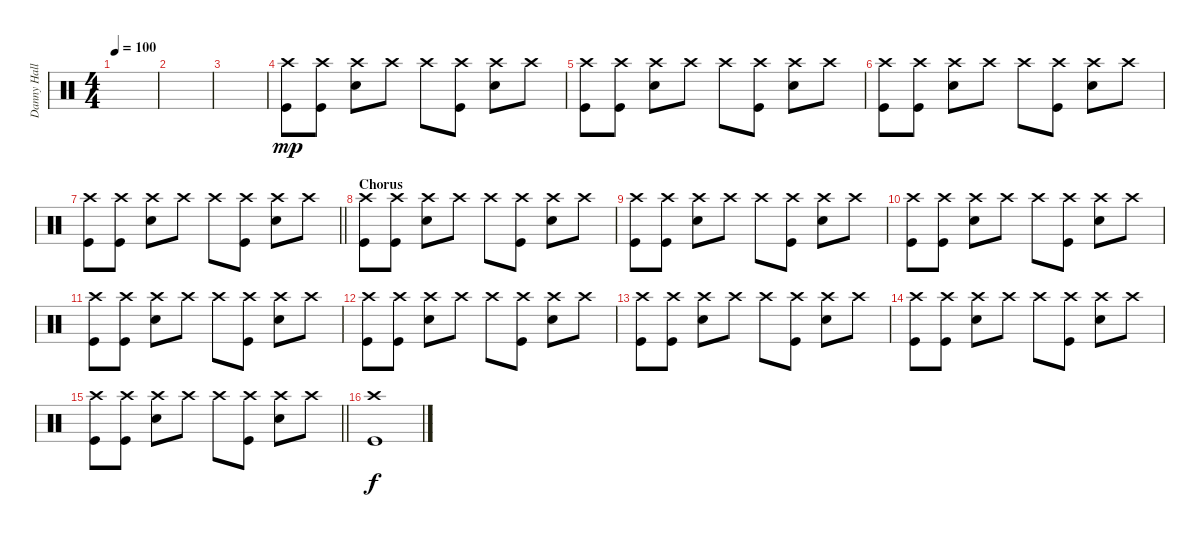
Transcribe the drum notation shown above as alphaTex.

\track ("Danny Hall" "Danny Hall") {instrument percussion}
\staff {score}
\articulation defaults
\ts (4 4)
\tempo 100
\clef neutral
\ks c
|
|
|
("Crash high (hit)" "Kick (hit)").8{dy mp} ("Crash high (hit)" "Kick (hit)").8 ("Crash high (hit)" "Snare (hit) 2").8 "Crash high (hit)".8 "Crash high (hit)".8 ("Crash high (hit)" "Kick (hit)").8 ("Crash high (hit)" "Snare (hit) 2").8 "Crash high (hit)".8 |
("Crash high (hit)" "Kick (hit)").8 ("Crash high (hit)" "Kick (hit)").8 ("Crash high (hit)" "Snare (hit) 2").8 "Crash high (hit)".8 "Crash high (hit)".8 ("Crash high (hit)" "Kick (hit)").8 ("Crash high (hit)" "Snare (hit) 2").8 "Crash high (hit)".8 |
("Crash high (hit)" "Kick (hit)").8 ("Crash high (hit)" "Kick (hit)").8 ("Crash high (hit)" "Snare (hit) 2").8 "Crash high (hit)".8 "Crash high (hit)".8 ("Crash high (hit)" "Kick (hit)").8 ("Crash high (hit)" "Snare (hit) 2").8 "Crash high (hit)".8 |
\barLineRight lightlight
("Crash high (hit)" "Kick (hit)").8 ("Crash high (hit)" "Kick (hit)").8 ("Crash high (hit)" "Snare (hit) 2").8 "Crash high (hit)".8 "Crash high (hit)".8 ("Crash high (hit)" "Kick (hit)").8 ("Crash high (hit)" "Snare (hit) 2").8 "Crash high (hit)".8 |
\section ("" "Chorus")
("Crash high (hit)" "Kick (hit)").8 ("Crash high (hit)" "Kick (hit)").8 ("Crash high (hit)" "Snare (hit) 2").8 "Crash high (hit)".8 "Crash high (hit)".8 ("Crash high (hit)" "Kick (hit)").8 ("Crash high (hit)" "Snare (hit) 2").8 "Crash high (hit)".8 |
("Crash high (hit)" "Kick (hit)").8 ("Crash high (hit)" "Kick (hit)").8 ("Crash high (hit)" "Snare (hit) 2").8 "Crash high (hit)".8 "Crash high (hit)".8 ("Crash high (hit)" "Kick (hit)").8 ("Crash high (hit)" "Snare (hit) 2").8 "Crash high (hit)".8 |
("Crash high (hit)" "Kick (hit)").8 ("Crash high (hit)" "Kick (hit)").8 ("Crash high (hit)" "Snare (hit) 2").8 "Crash high (hit)".8 "Crash high (hit)".8 ("Crash high (hit)" "Kick (hit)").8 ("Crash high (hit)" "Snare (hit) 2").8 "Crash high (hit)".8 |
("Crash high (hit)" "Kick (hit)").8 ("Crash high (hit)" "Kick (hit)").8 ("Crash high (hit)" "Snare (hit) 2").8 "Crash high (hit)".8 "Crash high (hit)".8 ("Crash high (hit)" "Kick (hit)").8 ("Crash high (hit)" "Snare (hit) 2").8 "Crash high (hit)".8 |
("Crash high (hit)" "Kick (hit)").8 ("Crash high (hit)" "Kick (hit)").8 ("Crash high (hit)" "Snare (hit) 2").8 "Crash high (hit)".8 "Crash high (hit)".8 ("Crash high (hit)" "Kick (hit)").8 ("Crash high (hit)" "Snare (hit) 2").8 "Crash high (hit)".8 |
("Crash high (hit)" "Kick (hit)").8 ("Crash high (hit)" "Kick (hit)").8 ("Crash high (hit)" "Snare (hit) 2").8 "Crash high (hit)".8 "Crash high (hit)".8 ("Crash high (hit)" "Kick (hit)").8 ("Crash high (hit)" "Snare (hit) 2").8 "Crash high (hit)".8 |
("Crash high (hit)" "Kick (hit)").8 ("Crash high (hit)" "Kick (hit)").8 ("Crash high (hit)" "Snare (hit) 2").8 "Crash high (hit)".8 "Crash high (hit)".8 ("Crash high (hit)" "Kick (hit)").8 ("Crash high (hit)" "Snare (hit) 2").8 "Crash high (hit)".8 |
\barLineRight lightlight
("Crash high (hit)" "Kick (hit)").8 ("Crash high (hit)" "Kick (hit)").8 ("Crash high (hit)" "Snare (hit) 2").8 "Crash high (hit)".8 "Crash high (hit)".8 ("Crash high (hit)" "Kick (hit)").8 ("Crash high (hit)" "Snare (hit) 2").8 "Crash high (hit)".8 |
("Crash high (hit)" "Kick (hit)").1{dy f}
